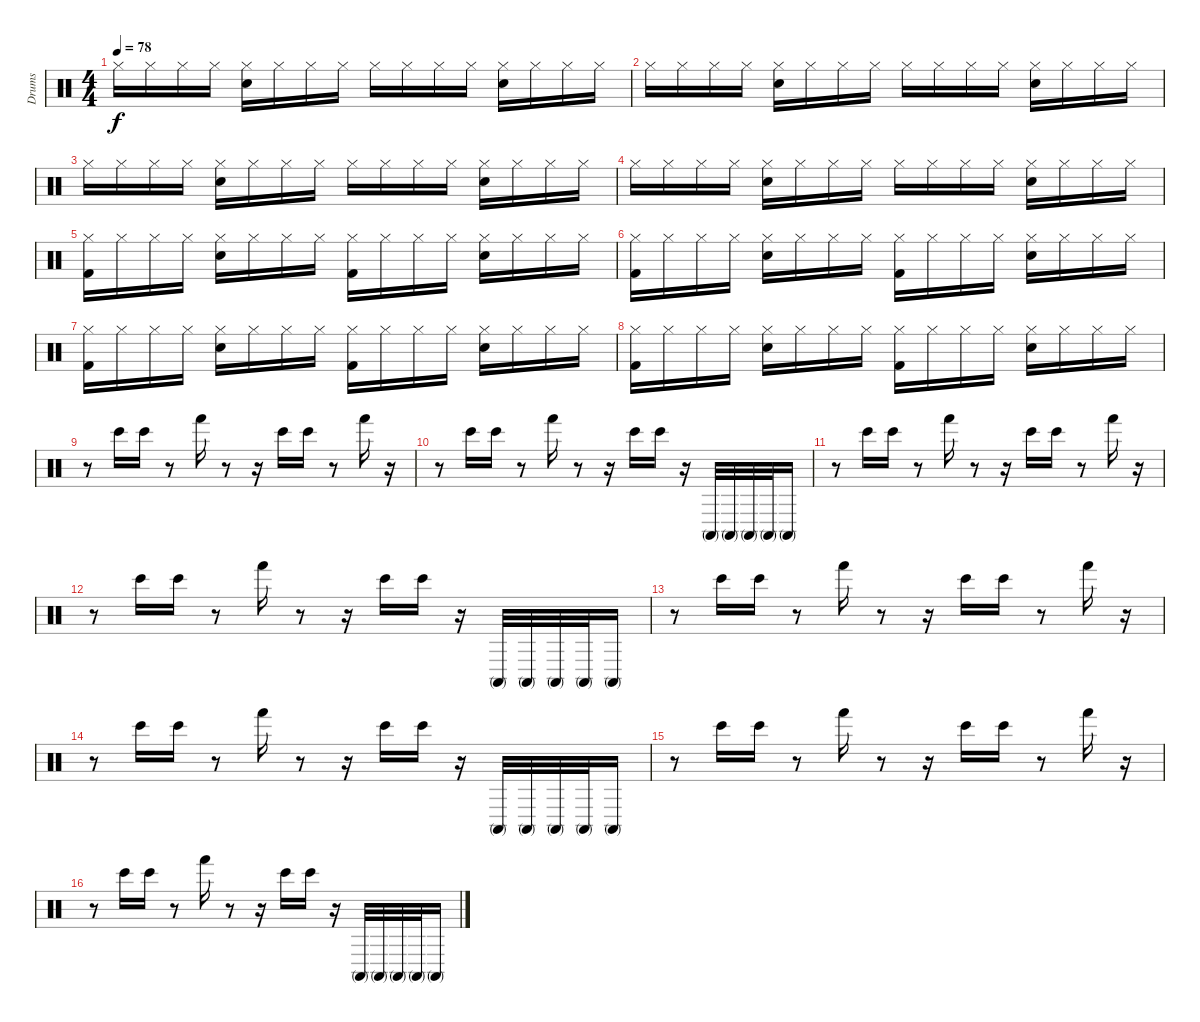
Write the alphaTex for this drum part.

\track ("Drums" "Drums") {instrument percussion}
\staff {score}
\articulation defaults
\ts (4 4)
\tempo 78
\clef neutral
\ks c "Hi-Hat (closed)".16{dy f} "Hi-Hat (closed)".16 "Hi-Hat (closed)".16 "Hi-Hat (closed)".16
("Snare (hit) 2" "Hi-Hat (closed)").16 "Hi-Hat (closed)".16 "Hi-Hat (closed)".16 "Hi-Hat (closed)".16 "Hi-Hat (closed)".16 "Hi-Hat (closed)".16 "Hi-Hat (closed)".16 "Hi-Hat (closed)".16 ("Snare (hit) 2" "Hi-Hat (closed)").16 "Hi-Hat (closed)".16 "Hi-Hat (closed)".16 "Hi-Hat (closed)".16 |
"Hi-Hat (closed)".16 "Hi-Hat (closed)".16 "Hi-Hat (closed)".16 "Hi-Hat (closed)".16 ("Snare (hit) 2" "Hi-Hat (closed)").16 "Hi-Hat (closed)".16 "Hi-Hat (closed)".16 "Hi-Hat (closed)".16 "Hi-Hat (closed)".16 "Hi-Hat (closed)".16 "Hi-Hat (closed)".16 "Hi-Hat (closed)".16 ("Snare (hit) 2" "Hi-Hat (closed)").16 "Hi-Hat (closed)".16 "Hi-Hat (closed)".16 "Hi-Hat (closed)".16 |
"Hi-Hat (closed)".16 "Hi-Hat (closed)".16 "Hi-Hat (closed)".16 "Hi-Hat (closed)".16 ("Snare (hit) 2" "Hi-Hat (closed)").16 "Hi-Hat (closed)".16 "Hi-Hat (closed)".16 "Hi-Hat (closed)".16 "Hi-Hat (closed)".16 "Hi-Hat (closed)".16 "Hi-Hat (closed)".16 "Hi-Hat (closed)".16 ("Snare (hit) 2" "Hi-Hat (closed)").16 "Hi-Hat (closed)".16 "Hi-Hat (closed)".16 "Hi-Hat (closed)".16 |
"Hi-Hat (closed)".16 "Hi-Hat (closed)".16 "Hi-Hat (closed)".16 "Hi-Hat (closed)".16 ("Snare (hit) 2" "Hi-Hat (closed)").16 "Hi-Hat (closed)".16 "Hi-Hat (closed)".16 "Hi-Hat (closed)".16 "Hi-Hat (closed)".16 "Hi-Hat (closed)".16 "Hi-Hat (closed)".16 "Hi-Hat (closed)".16 ("Snare (hit) 2" "Hi-Hat (closed)").16 "Hi-Hat (closed)".16 "Hi-Hat (closed)".16 "Hi-Hat (closed)".16 |
("Kick (hit) 2" "Hi-Hat (closed)").16 "Hi-Hat (closed)".16 "Hi-Hat (closed)".16 "Hi-Hat (closed)".16 ("Snare (hit) 2" "Hi-Hat (closed)").16 "Hi-Hat (closed)".16 "Hi-Hat (closed)".16 "Hi-Hat (closed)".16 ("Kick (hit) 2" "Hi-Hat (closed)").16 "Hi-Hat (closed)".16 "Hi-Hat (closed)".16 "Hi-Hat (closed)".16 ("Snare (hit) 2" "Hi-Hat (closed)").16 "Hi-Hat (closed)".16 "Hi-Hat (closed)".16 "Hi-Hat (closed)".16 |
("Kick (hit) 2" "Hi-Hat (closed)").16 "Hi-Hat (closed)".16 "Hi-Hat (closed)".16 "Hi-Hat (closed)".16 ("Snare (hit) 2" "Hi-Hat (closed)").16 "Hi-Hat (closed)".16 "Hi-Hat (closed)".16 "Hi-Hat (closed)".16 ("Kick (hit) 2" "Hi-Hat (closed)").16 "Hi-Hat (closed)".16 "Hi-Hat (closed)".16 "Hi-Hat (closed)".16 ("Snare (hit) 2" "Hi-Hat (closed)").16 "Hi-Hat (closed)".16 "Hi-Hat (closed)".16 "Hi-Hat (closed)".16 |
("Kick (hit) 2" "Hi-Hat (closed)").16 "Hi-Hat (closed)".16 "Hi-Hat (closed)".16 "Hi-Hat (closed)".16 ("Snare (hit) 2" "Hi-Hat (closed)").16 "Hi-Hat (closed)".16 "Hi-Hat (closed)".16 "Hi-Hat (closed)".16 ("Kick (hit) 2" "Hi-Hat (closed)").16 "Hi-Hat (closed)".16 "Hi-Hat (closed)".16 "Hi-Hat (closed)".16 ("Snare (hit) 2" "Hi-Hat (closed)").16 "Hi-Hat (closed)".16 "Hi-Hat (closed)".16 "Hi-Hat (closed)".16 |
("Kick (hit) 2" "Hi-Hat (closed)").16 "Hi-Hat (closed)".16 "Hi-Hat (closed)".16 "Hi-Hat (closed)".16 ("Snare (hit) 2" "Hi-Hat (closed)").16 "Hi-Hat (closed)".16 "Hi-Hat (closed)".16 "Hi-Hat (closed)".16 ("Kick (hit) 2" "Hi-Hat (closed)").16 "Hi-Hat (closed)".16 "Hi-Hat (closed)".16 "Hi-Hat (closed)".16 ("Snare (hit) 2" "Hi-Hat (closed)").16 "Hi-Hat (closed)".16 "Hi-Hat (closed)".16 "Hi-Hat (closed)".16 |
r.8 "Bongo High (hit)".16 "Bongo High (hit)".16 r.8 "Hand (hit)".16 r.8 r.16 "Bongo High (hit)".16 "Bongo High (hit)".16 r.8 "Hand (hit)".16 r.16 |
r.8 "Bongo High (hit)".16 "Bongo High (hit)".16 r.8 "Hand (hit)".16 r.8 r.16 "Bongo High (hit)".16 "Bongo High (hit)".16 r.16 "Conga high (mute)".32 "Conga high (mute)".32 "Conga high (mute)".32 "Conga high (mute)".32 "Conga high (mute)".16 |
r.8 "Bongo High (hit)".16 "Bongo High (hit)".16 r.8 "Hand (hit)".16 r.8 r.16 "Bongo High (hit)".16 "Bongo High (hit)".16 r.8 "Hand (hit)".16 r.16 |
r.8 "Bongo High (hit)".16 "Bongo High (hit)".16 r.8 "Hand (hit)".16 r.8 r.16 "Bongo High (hit)".16 "Bongo High (hit)".16 r.16 "Conga high (mute)".32 "Conga high (mute)".32 "Conga high (mute)".32 "Conga high (mute)".32 "Conga high (mute)".16 |
r.8 "Bongo High (hit)".16 "Bongo High (hit)".16 r.8 "Hand (hit)".16 r.8 r.16 "Bongo High (hit)".16 "Bongo High (hit)".16 r.8 "Hand (hit)".16 r.16 |
r.8 "Bongo High (hit)".16 "Bongo High (hit)".16 r.8 "Hand (hit)".16 r.8 r.16 "Bongo High (hit)".16 "Bongo High (hit)".16 r.16 "Conga high (mute)".32 "Conga high (mute)".32 "Conga high (mute)".32 "Conga high (mute)".32 "Conga high (mute)".16 |
r.8 "Bongo High (hit)".16 "Bongo High (hit)".16 r.8 "Hand (hit)".16 r.8 r.16 "Bongo High (hit)".16 "Bongo High (hit)".16 r.8 "Hand (hit)".16 r.16 |
r.8 "Bongo High (hit)".16 "Bongo High (hit)".16 r.8 "Hand (hit)".16 r.8 r.16 "Bongo High (hit)".16 "Bongo High (hit)".16 r.16 "Conga high (mute)".32 "Conga high (mute)".32 "Conga high (mute)".32 "Conga high (mute)".32 "Conga high (mute)".16
